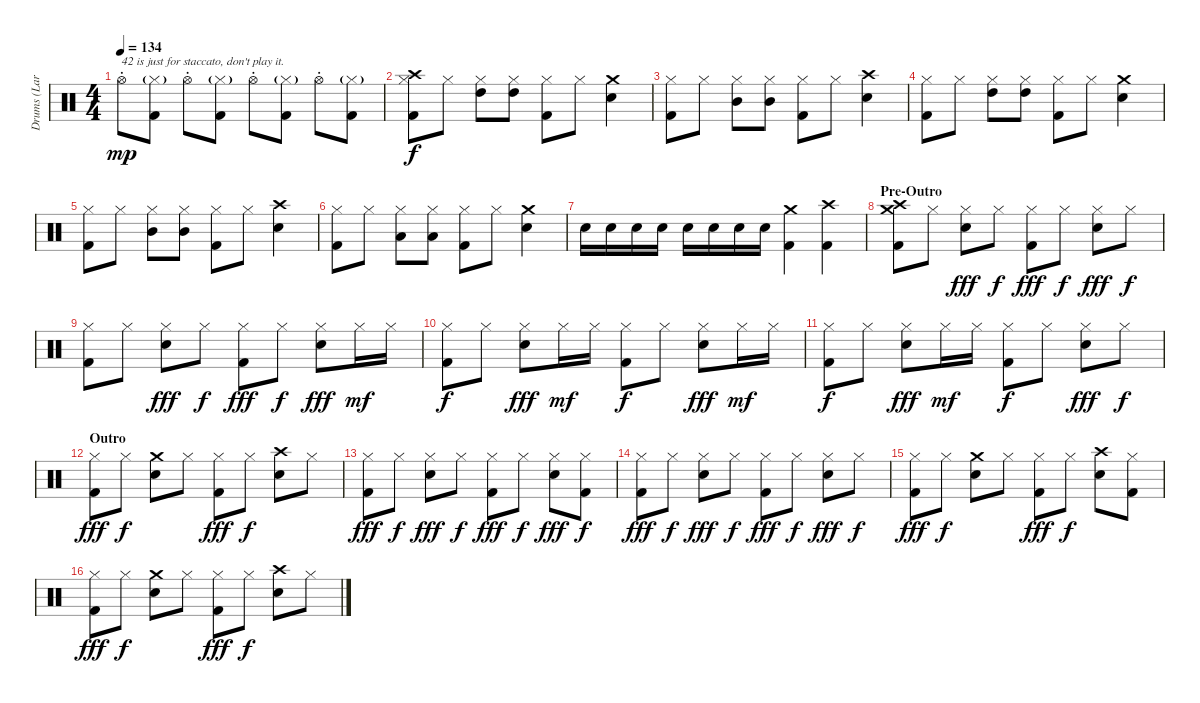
\track ("Drums (Lars)" "Drums (Lar") {instrument percussion}
\staff {score}
\articulation defaults
\ts (4 4)
\tempo 134
\clef neutral
\ks c "Hi-Hat (open)"{st}.8{txt "42 is just for staccato, don't play it." dy mp}
("Hi-Hat (closed)"{g} "Kick (hit) 2").8 "Hi-Hat (open)"{st}.8 ("Hi-Hat (closed)"{g} "Kick (hit) 2").8 "Hi-Hat (open)"{st}.8 ("Hi-Hat (closed)"{g} "Kick (hit) 2").8 "Hi-Hat (open)"{st}.8 ("Hi-Hat (closed)"{g} "Kick (hit) 2").8 |
("Crash high (hit)" "Hi-Hat (closed)" "Kick (hit) 2").8{dy f} "Hi-Hat (closed)".8 ("Hi-Hat (closed)" "High Tom (hit)").8 ("Hi-Hat (closed)" "High Tom (hit)").8 ("Hi-Hat (closed)" "Kick (hit) 2").8 "Hi-Hat (closed)".8 ("Crash medium (hit)" "Snare (hit) 2").4 |
("Hi-Hat (closed)" "Kick (hit) 2").8 "Hi-Hat (closed)".8 ("Hi-Hat (closed)" "Mid Tom (hit)").8 ("Hi-Hat (closed)" "Mid Tom (hit)").8 ("Hi-Hat (closed)" "Kick (hit) 2").8 "Hi-Hat (closed)".8 ("Crash high (hit)" "Snare (hit) 2").4 |
("Hi-Hat (closed)" "Kick (hit) 2").8 "Hi-Hat (closed)".8 ("Hi-Hat (closed)" "High Tom (hit)").8 ("Hi-Hat (closed)" "High Tom (hit)").8 ("Hi-Hat (closed)" "Kick (hit) 2").8 "Hi-Hat (closed)".8 ("Crash medium (hit)" "Snare (hit) 2").4 |
("Hi-Hat (closed)" "Kick (hit) 2").8 "Hi-Hat (closed)".8 ("Hi-Hat (closed)" "Mid Tom (hit)").8 ("Hi-Hat (closed)" "Mid Tom (hit)").8 ("Hi-Hat (closed)" "Kick (hit) 2").8 "Hi-Hat (closed)".8 ("Crash high (hit)" "Snare (hit) 2").4 |
("Hi-Hat (closed)" "Kick (hit) 2").8 "Hi-Hat (closed)".8 ("Hi-Hat (closed)" "Low Tom (hit)").8 ("Hi-Hat (closed)" "Low Tom (hit)").8 ("Hi-Hat (closed)" "Kick (hit) 2").8 "Hi-Hat (closed)".8 ("Crash medium (hit)" "Snare (hit) 2").4 |
"Snare (hit) 2".16 "Snare (hit) 2".16 "Snare (hit) 2".16 "Snare (hit) 2".16 "Snare (hit) 2".16 "Snare (hit) 2".16 "Snare (hit) 2".16 "Snare (hit) 2".16 ("Crash medium (hit)" "Kick (hit) 2").4 ("Crash high (hit)" "Kick (hit) 2").4 |
\section ("" "Pre-Outro")
("Crash high (hit)" "Crash medium (hit)" "Kick (hit) 2").8 "Hi-Hat (closed)".8 ("Hi-Hat (closed)" "Snare (hit) 2").8{dy fff} "Hi-Hat (closed)".8{dy f} ("Hi-Hat (closed)" "Kick (hit) 2").8{dy fff} "Hi-Hat (closed)".8{dy f} ("Hi-Hat (closed)" "Snare (hit) 2").8{dy fff} "Hi-Hat (closed)".8{dy f} |
("Hi-Hat (closed)" "Kick (hit) 2").8 "Hi-Hat (closed)".8 ("Hi-Hat (closed)" "Snare (hit) 2").8{dy fff} "Hi-Hat (closed)".8{dy f} ("Hi-Hat (closed)" "Kick (hit) 2").8{dy fff} "Hi-Hat (closed)".8{dy f} ("Hi-Hat (closed)" "Snare (hit) 2").8{dy fff} "Hi-Hat (closed)".16{dy mf} "Hi-Hat (closed)".16 |
("Hi-Hat (closed)" "Kick (hit) 2").8{dy f} "Hi-Hat (closed)".8 ("Hi-Hat (closed)" "Snare (hit) 2").8{dy fff} "Hi-Hat (closed)".16{dy mf} "Hi-Hat (closed)".16 ("Hi-Hat (closed)" "Kick (hit) 2").8{dy f} "Hi-Hat (closed)".8 ("Hi-Hat (closed)" "Snare (hit) 2").8{dy fff} "Hi-Hat (closed)".16{dy mf} "Hi-Hat (closed)".16 |
("Hi-Hat (closed)" "Kick (hit) 2").8{dy f} "Hi-Hat (closed)".8 ("Hi-Hat (closed)" "Snare (hit) 2").8{dy fff} "Hi-Hat (closed)".16{dy mf} "Hi-Hat (closed)".16 ("Hi-Hat (closed)" "Kick (hit) 2").8{dy f} "Hi-Hat (closed)".8 ("Hi-Hat (closed)" "Snare (hit) 2").8{dy fff} "Hi-Hat (closed)".8{dy f} |
\section ("" "Outro")
("Hi-Hat (closed)" "Kick (hit) 2").8{dy fff} "Hi-Hat (closed)".8{dy f} ("Crash medium (hit)" "Snare (hit) 2").8 "Hi-Hat (closed)".8 ("Hi-Hat (closed)" "Kick (hit) 2").8{dy fff} "Hi-Hat (closed)".8{dy f} ("Crash high (hit)" "Snare (hit) 2").8 "Hi-Hat (closed)".8 |
("Hi-Hat (closed)" "Kick (hit) 2").8{dy fff} "Hi-Hat (closed)".8{dy f} ("Hi-Hat (closed)" "Snare (hit) 2").8{dy fff} "Hi-Hat (closed)".8{dy f} ("Hi-Hat (closed)" "Kick (hit) 2").8{dy fff} "Hi-Hat (closed)".8{dy f} ("Hi-Hat (closed)" "Snare (hit) 2").8{dy fff} ("Hi-Hat (closed)" "Kick (hit) 2").8{dy f} |
("Hi-Hat (closed)" "Kick (hit) 2").8{dy fff} "Hi-Hat (closed)".8{dy f} ("Hi-Hat (closed)" "Snare (hit) 2").8{dy fff} "Hi-Hat (closed)".8{dy f} ("Hi-Hat (closed)" "Kick (hit) 2").8{dy fff} "Hi-Hat (closed)".8{dy f} ("Hi-Hat (closed)" "Snare (hit) 2").8{dy fff} "Hi-Hat (closed)".8{dy f} |
("Hi-Hat (closed)" "Kick (hit) 2").8{dy fff} "Hi-Hat (closed)".8{dy f} ("Crash medium (hit)" "Snare (hit) 2").8 "Hi-Hat (closed)".8 ("Hi-Hat (closed)" "Kick (hit) 2").8{dy fff} "Hi-Hat (closed)".8{dy f} ("Crash high (hit)" "Snare (hit) 2").8 ("Hi-Hat (closed)" "Kick (hit) 2").8 |
("Hi-Hat (closed)" "Kick (hit) 2").8{dy fff} "Hi-Hat (closed)".8{dy f} ("Crash medium (hit)" "Snare (hit) 2").8 "Hi-Hat (closed)".8 ("Hi-Hat (closed)" "Kick (hit) 2").8{dy fff} "Hi-Hat (closed)".8{dy f} ("Crash high (hit)" "Snare (hit) 2").8 "Hi-Hat (closed)".8
